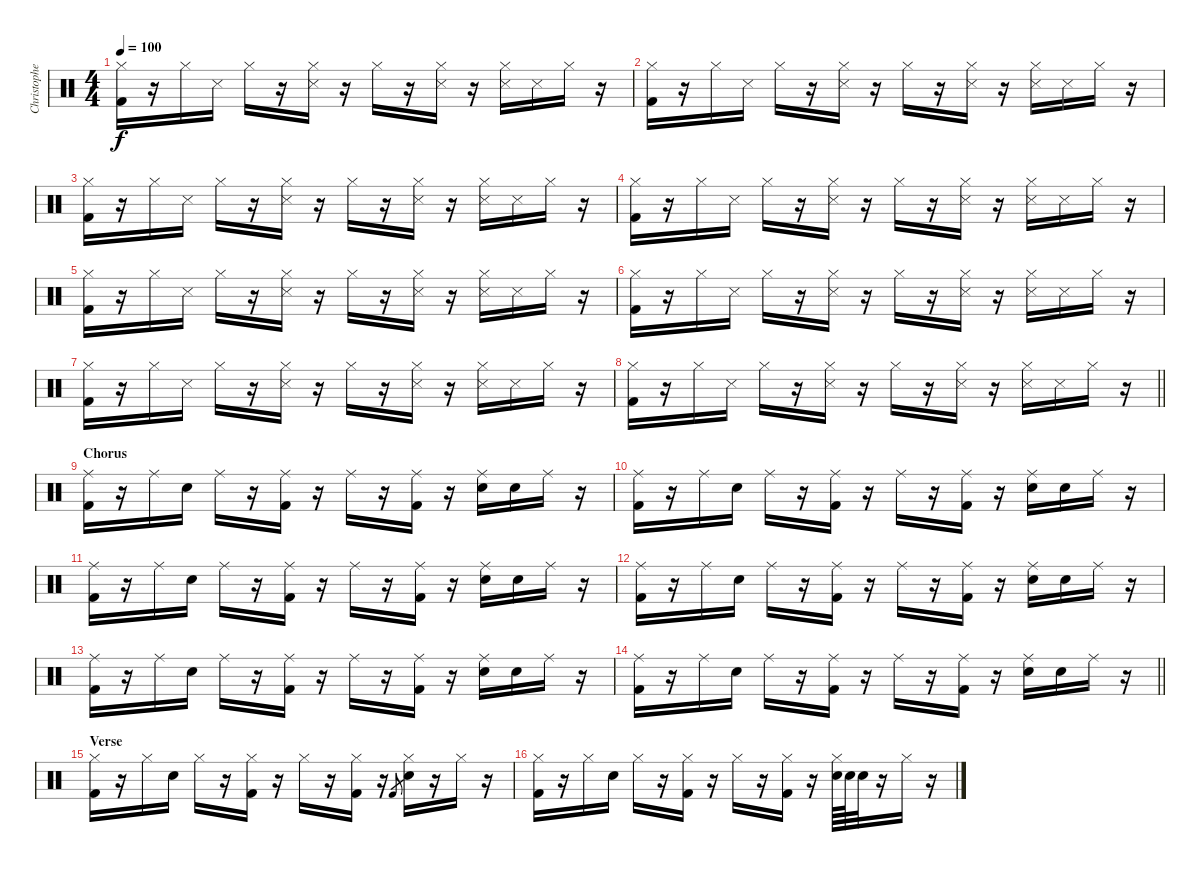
\track ("Christopher - Drums" "Christophe") {instrument percussion}
\staff {score}
\articulation defaults
\ts (4 4)
\tempo 100
\clef neutral
\ks c
("Hi-Hat (closed)" "Kick (hit) 2").16{dy f} r.16 "Hi-Hat (closed)".16 "Snare (side stick) 3".16 "Hi-Hat (closed)".16 r.16 ("Hi-Hat (closed)" "Snare (side stick) 3").16 r.16 "Hi-Hat (closed)".16 r.16 ("Hi-Hat (closed)" "Snare (side stick) 3").16 r.16 ("Hi-Hat (closed)" "Snare (side stick) 3").16 "Snare (side stick) 3".16 "Hi-Hat (closed)".16 r.16 |
("Hi-Hat (closed)" "Kick (hit) 2").16 r.16 "Hi-Hat (closed)".16 "Snare (side stick) 3".16 "Hi-Hat (closed)".16 r.16 ("Hi-Hat (closed)" "Snare (side stick) 3").16 r.16 "Hi-Hat (closed)".16 r.16 ("Hi-Hat (closed)" "Snare (side stick) 3").16 r.16 ("Hi-Hat (closed)" "Snare (side stick) 3").16 "Snare (side stick) 3".16 "Hi-Hat (closed)".16 r.16 |
("Hi-Hat (closed)" "Kick (hit) 2").16 r.16 "Hi-Hat (closed)".16 "Snare (side stick) 3".16 "Hi-Hat (closed)".16 r.16 ("Hi-Hat (closed)" "Snare (side stick) 3").16 r.16 "Hi-Hat (closed)".16 r.16 ("Hi-Hat (closed)" "Snare (side stick) 3").16 r.16 ("Hi-Hat (closed)" "Snare (side stick) 3").16 "Snare (side stick) 3".16 "Hi-Hat (closed)".16 r.16 |
("Hi-Hat (closed)" "Kick (hit) 2").16 r.16 "Hi-Hat (closed)".16 "Snare (side stick) 3".16 "Hi-Hat (closed)".16 r.16 ("Hi-Hat (closed)" "Snare (side stick) 3").16 r.16 "Hi-Hat (closed)".16 r.16 ("Hi-Hat (closed)" "Snare (side stick) 3").16 r.16 ("Hi-Hat (closed)" "Snare (side stick) 3").16 "Snare (side stick) 3".16 "Hi-Hat (closed)".16 r.16 |
("Hi-Hat (closed)" "Kick (hit) 2").16 r.16 "Hi-Hat (closed)".16 "Snare (side stick) 3".16 "Hi-Hat (closed)".16 r.16 ("Hi-Hat (closed)" "Snare (side stick) 3").16 r.16 "Hi-Hat (closed)".16 r.16 ("Hi-Hat (closed)" "Snare (side stick) 3").16 r.16 ("Hi-Hat (closed)" "Snare (side stick) 3").16 "Snare (side stick) 3".16 "Hi-Hat (closed)".16 r.16 |
("Hi-Hat (closed)" "Kick (hit) 2").16 r.16 "Hi-Hat (closed)".16 "Snare (side stick) 3".16 "Hi-Hat (closed)".16 r.16 ("Hi-Hat (closed)" "Snare (side stick) 3").16 r.16 "Hi-Hat (closed)".16 r.16 ("Hi-Hat (closed)" "Snare (side stick) 3").16 r.16 ("Hi-Hat (closed)" "Snare (side stick) 3").16 "Snare (side stick) 3".16 "Hi-Hat (closed)".16 r.16 |
("Hi-Hat (closed)" "Kick (hit) 2").16 r.16 "Hi-Hat (closed)".16 "Snare (side stick) 3".16 "Hi-Hat (closed)".16 r.16 ("Hi-Hat (closed)" "Snare (side stick) 3").16 r.16 "Hi-Hat (closed)".16 r.16 ("Hi-Hat (closed)" "Snare (side stick) 3").16 r.16 ("Hi-Hat (closed)" "Snare (side stick) 3").16 "Snare (side stick) 3".16 "Hi-Hat (closed)".16 r.16 |
\barLineRight lightlight
("Hi-Hat (closed)" "Kick (hit) 2").16 r.16 "Hi-Hat (closed)".16 "Snare (side stick) 3".16 "Hi-Hat (closed)".16 r.16 ("Hi-Hat (closed)" "Snare (side stick) 3").16 r.16 "Hi-Hat (closed)".16 r.16 ("Hi-Hat (closed)" "Snare (side stick) 3").16 r.16 ("Hi-Hat (closed)" "Snare (side stick) 3").16 "Snare (side stick) 3".16 "Hi-Hat (closed)".16 r.16 |
\section ("" "Chorus")
("Ride (middle)" "Kick (hit) 2").16 r.16 "Ride (middle)".16 "Electric Snare (hit)".16 "Ride (middle)".16 r.16 ("Ride (middle)" "Kick (hit) 2").16 r.16 "Ride (middle)".16 r.16 ("Ride (middle)" "Kick (hit) 2").16 r.16 ("Ride (middle)" "Electric Snare (hit)").16 "Electric Snare (hit)".16 "Ride (middle)".16 r.16 |
("Ride (middle)" "Kick (hit) 2").16 r.16 "Ride (middle)".16 "Electric Snare (hit)".16 "Ride (middle)".16 r.16 ("Ride (middle)" "Kick (hit) 2").16 r.16 "Ride (middle)".16 r.16 ("Ride (middle)" "Kick (hit) 2").16 r.16 ("Ride (middle)" "Electric Snare (hit)").16 "Electric Snare (hit)".16 "Ride (middle)".16 r.16 |
("Ride (middle)" "Kick (hit) 2").16 r.16 "Ride (middle)".16 "Electric Snare (hit)".16 "Ride (middle)".16 r.16 ("Ride (middle)" "Kick (hit) 2").16 r.16 "Ride (middle)".16 r.16 ("Ride (middle)" "Kick (hit) 2").16 r.16 ("Ride (middle)" "Electric Snare (hit)").16 "Electric Snare (hit)".16 "Ride (middle)".16 r.16 |
("Ride (middle)" "Kick (hit) 2").16 r.16 "Ride (middle)".16 "Electric Snare (hit)".16 "Ride (middle)".16 r.16 ("Ride (middle)" "Kick (hit) 2").16 r.16 "Ride (middle)".16 r.16 ("Ride (middle)" "Kick (hit) 2").16 r.16 ("Ride (middle)" "Electric Snare (hit)").16 "Electric Snare (hit)".16 "Ride (middle)".16 r.16 |
("Ride (middle)" "Kick (hit) 2").16 r.16 "Ride (middle)".16 "Electric Snare (hit)".16 "Ride (middle)".16 r.16 ("Ride (middle)" "Kick (hit) 2").16 r.16 "Ride (middle)".16 r.16 ("Ride (middle)" "Kick (hit) 2").16 r.16 ("Ride (middle)" "Electric Snare (hit)").16 "Electric Snare (hit)".16 "Ride (middle)".16 r.16 |
\barLineRight lightlight
("Ride (middle)" "Kick (hit) 2").16 r.16 "Ride (middle)".16 "Electric Snare (hit)".16 "Ride (middle)".16 r.16 ("Ride (middle)" "Kick (hit) 2").16 r.16 "Ride (middle)".16 r.16 ("Ride (middle)" "Kick (hit) 2").16 r.16 ("Ride (middle)" "Electric Snare (hit)").16 "Electric Snare (hit)".16 "Ride (middle)".16 r.16 |
\section ("" "Verse")
("Hi-Hat (closed)" "Kick (hit) 2").16 r.16 "Hi-Hat (closed)".16 "Electric Snare (hit)".16 "Hi-Hat (closed)".16 r.16 ("Hi-Hat (closed)" "Kick (hit) 2").16 r.16 "Hi-Hat (closed)".16 r.16 ("Hi-Hat (closed)" "Kick (hit) 2").16 r.16 "Kick (hit) 2".8{gr} ("Hi-Hat (closed)" "Electric Snare (hit)").16 r.16 "Hi-Hat (closed)".16 r.16 |
("Hi-Hat (closed)" "Kick (hit) 2").16 r.16 "Hi-Hat (closed)".16 "Electric Snare (hit)".16 "Hi-Hat (closed)".16 r.16 ("Hi-Hat (closed)" "Kick (hit) 2").16 r.16 "Hi-Hat (closed)".16 r.16 ("Hi-Hat (closed)" "Kick (hit) 2").16 r.16 ("Hi-Hat (closed)" "Electric Snare (hit)").64 "Electric Snare (hit)".64 "Electric Snare (hit)".32 r.16 "Hi-Hat (closed)".16 r.16
